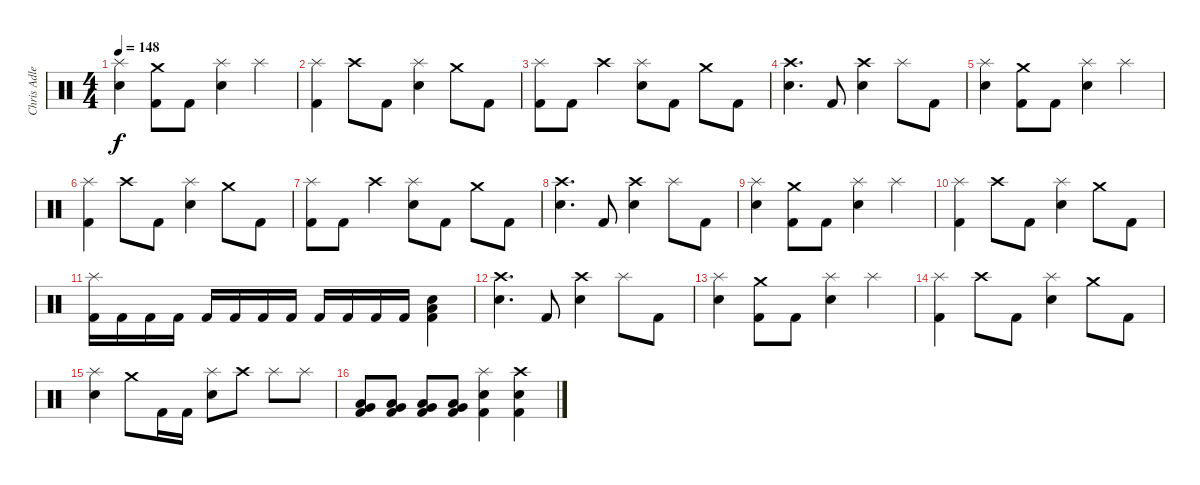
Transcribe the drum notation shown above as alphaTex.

\track ("Chris Adler (Drums)" "Chris Adle") {instrument percussion}
\staff {score}
\articulation defaults
\ts (4 4)
\tempo 148
\clef neutral
\ks c
("Splash (hit)" "Snare (hit) 2").4{dy f} ("Crash medium (hit)" "Kick (hit) 2").8 "Kick (hit) 2".8 ("Splash (hit)" "Snare (hit) 2").4 "Splash (hit)".4 |
("Splash (hit)" "Kick (hit) 2").4 "Crash high (hit)".8 "Kick (hit) 2".8 ("Splash (hit)" "Snare (hit) 2").4 "Crash medium (hit)".8 "Kick (hit) 2".8 |
("Splash (hit)" "Kick (hit) 2").8 "Kick (hit) 2".8 "Crash high (hit)".4 ("Splash (hit)" "Snare (hit) 2").8 "Kick (hit) 2".8 "Crash medium (hit)".8 "Kick (hit) 2".8 |
("Crash high (hit)" "Snare (hit) 2").4{d} "Kick (hit) 2".8 ("Crash high (hit)" "Snare (hit) 2").4 "Splash (hit)".8 "Kick (hit) 2".8 |
("Splash (hit)" "Snare (hit) 2").4 ("Crash medium (hit)" "Kick (hit) 2").8 "Kick (hit) 2".8 ("Splash (hit)" "Snare (hit) 2").4 "Splash (hit)".4 |
("Splash (hit)" "Kick (hit) 2").4 "Crash high (hit)".8 "Kick (hit) 2".8 ("Splash (hit)" "Snare (hit) 2").4 "Crash medium (hit)".8 "Kick (hit) 2".8 |
("Splash (hit)" "Kick (hit) 2").8 "Kick (hit) 2".8 "Crash high (hit)".4 ("Splash (hit)" "Snare (hit) 2").8 "Kick (hit) 2".8 "Crash medium (hit)".8 "Kick (hit) 2".8 |
("Crash high (hit)" "Snare (hit) 2").4{d} "Kick (hit) 2".8 ("Crash high (hit)" "Snare (hit) 2").4 "Splash (hit)".8 "Kick (hit) 2".8 |
("Splash (hit)" "Snare (hit) 2").4 ("Crash medium (hit)" "Kick (hit) 2").8 "Kick (hit) 2".8 ("Splash (hit)" "Snare (hit) 2").4 "Splash (hit)".4 |
("Splash (hit)" "Kick (hit) 2").4 "Crash high (hit)".8 "Kick (hit) 2".8 ("Splash (hit)" "Snare (hit) 2").4 "Crash medium (hit)".8 "Kick (hit) 2".8 |
("Splash (hit)" "Kick (hit) 2").16 "Kick (hit) 2".16 "Kick (hit) 2".16 "Kick (hit) 2".16 "Kick (hit) 2".16 "Kick (hit) 2".16 "Kick (hit) 2".16 "Kick (hit) 2".16 "Kick (hit) 2".16 "Kick (hit) 2".16 "Kick (hit) 2".16 "Kick (hit) 2".16 ("Snare (hit) 2" "Low Floor Tom (hit)" "Kick (hit) 2").4 |
("Crash high (hit)" "Snare (hit) 2").4{d} "Kick (hit) 2".8 ("Crash high (hit)" "Snare (hit) 2").4 "Splash (hit)".8 "Kick (hit) 2".8 |
("Splash (hit)" "Snare (hit) 2").4 ("Crash medium (hit)" "Kick (hit) 2").8 "Kick (hit) 2".8 ("Splash (hit)" "Snare (hit) 2").4 "Splash (hit)".4 |
("Splash (hit)" "Kick (hit) 2").4 "Crash high (hit)".8 "Kick (hit) 2".8 ("Splash (hit)" "Snare (hit) 2").4 "Crash medium (hit)".8 "Kick (hit) 2".8 |
("Splash (hit)" "Snare (hit) 2").4 "Crash medium (hit)".8 "Kick (hit) 2".16 "Kick (hit) 2".16 ("Splash (hit)" "Snare (hit) 2").8 "Crash high (hit)".8 "Splash (hit)".8 "Splash (hit)".8 |
("Very Low Tom (hit)" "Low Floor Tom (hit)" "Kick (hit) 2").8 ("Very Low Tom (hit)" "Low Floor Tom (hit)" "Kick (hit) 2").8 ("Very Low Tom (hit)" "Low Floor Tom (hit)" "Kick (hit) 2").8 ("Very Low Tom (hit)" "Low Floor Tom (hit)" "Kick (hit) 2").8 ("Splash (hit)" "Snare (hit) 2" "Kick (hit) 2").4 ("Crash high (hit)" "Snare (hit) 2" "Kick (hit) 2").4
